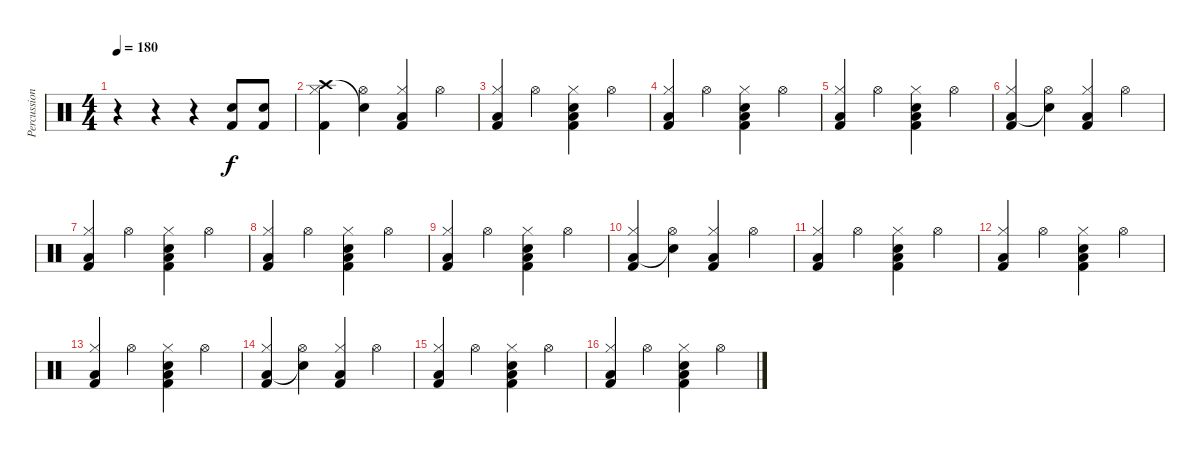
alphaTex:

\track ("Percussion" "Percussion") {instrument percussion}
\staff {score}
\articulation defaults
\ts (4 4)
\tempo 180
\clef neutral
\ks c
r.4{dy f} r.4 r.4 ("Snare (hit) 2" "Kick (hit) 2").8 ("Snare (hit) 2" "Kick (hit) 2").8 |
("Crash high (hit)" "Kick (hit) 2" "Hi-Hat (closed)").4 ("Snare (hit)"{t} "Hi-Hat (open)").4 ("Low Floor Tom (hit)" "Kick (hit) 2" "Hi-Hat (closed)").4 "Hi-Hat (open)".4 |
("Low Floor Tom (hit)" "Kick (hit) 2" "Hi-Hat (closed)").4 "Hi-Hat (open)".4 ("Low Floor Tom (hit)" "Kick (hit) 2" "Hi-Hat (closed)" "Snare (hit) 2").4 "Hi-Hat (open)".4 |
("Low Floor Tom (hit)" "Kick (hit) 2" "Hi-Hat (closed)").4 "Hi-Hat (open)".4 ("Low Floor Tom (hit)" "Kick (hit) 2" "Hi-Hat (closed)" "Snare (hit) 2").4 "Hi-Hat (open)".4 |
("Low Floor Tom (hit)" "Kick (hit) 2" "Hi-Hat (closed)").4 "Hi-Hat (open)".4 ("Low Floor Tom (hit)" "Kick (hit) 2" "Hi-Hat (closed)" "Snare (hit) 2").4 "Hi-Hat (open)".4 |
("Low Floor Tom (hit)" "Kick (hit) 2" "Hi-Hat (closed)").4 ("Snare (hit)"{t} "Hi-Hat (open)").4 ("Low Floor Tom (hit)" "Kick (hit) 2" "Hi-Hat (closed)").4 "Hi-Hat (open)".4 |
("Low Floor Tom (hit)" "Kick (hit) 2" "Hi-Hat (closed)").4 "Hi-Hat (open)".4 ("Low Floor Tom (hit)" "Kick (hit) 2" "Hi-Hat (closed)" "Snare (hit) 2").4 "Hi-Hat (open)".4 |
("Low Floor Tom (hit)" "Kick (hit) 2" "Hi-Hat (closed)").4 "Hi-Hat (open)".4 ("Low Floor Tom (hit)" "Kick (hit) 2" "Hi-Hat (closed)" "Snare (hit) 2").4 "Hi-Hat (open)".4 |
("Low Floor Tom (hit)" "Kick (hit) 2" "Hi-Hat (closed)").4 "Hi-Hat (open)".4 ("Low Floor Tom (hit)" "Kick (hit) 2" "Hi-Hat (closed)" "Snare (hit) 2").4 "Hi-Hat (open)".4 |
("Low Floor Tom (hit)" "Kick (hit) 2" "Hi-Hat (closed)").4 ("Snare (hit)"{t} "Hi-Hat (open)").4 ("Low Floor Tom (hit)" "Kick (hit) 2" "Hi-Hat (closed)").4 "Hi-Hat (open)".4 |
("Low Floor Tom (hit)" "Kick (hit) 2" "Hi-Hat (closed)").4 "Hi-Hat (open)".4 ("Low Floor Tom (hit)" "Kick (hit) 2" "Hi-Hat (closed)" "Snare (hit) 2").4 "Hi-Hat (open)".4 |
("Low Floor Tom (hit)" "Kick (hit) 2" "Hi-Hat (closed)").4 "Hi-Hat (open)".4 ("Low Floor Tom (hit)" "Kick (hit) 2" "Hi-Hat (closed)" "Snare (hit) 2").4 "Hi-Hat (open)".4 |
("Low Floor Tom (hit)" "Kick (hit) 2" "Hi-Hat (closed)").4 "Hi-Hat (open)".4 ("Low Floor Tom (hit)" "Kick (hit) 2" "Hi-Hat (closed)" "Snare (hit) 2").4 "Hi-Hat (open)".4 |
("Low Floor Tom (hit)" "Kick (hit) 2" "Hi-Hat (closed)").4 ("Snare (hit)"{t} "Hi-Hat (open)").4 ("Low Floor Tom (hit)" "Kick (hit) 2" "Hi-Hat (closed)").4 "Hi-Hat (open)".4 |
("Low Floor Tom (hit)" "Kick (hit) 2" "Hi-Hat (closed)").4 "Hi-Hat (open)".4 ("Low Floor Tom (hit)" "Kick (hit) 2" "Hi-Hat (closed)" "Snare (hit) 2").4 "Hi-Hat (open)".4 |
("Low Floor Tom (hit)" "Kick (hit) 2" "Hi-Hat (closed)").4 "Hi-Hat (open)".4 ("Low Floor Tom (hit)" "Kick (hit) 2" "Hi-Hat (closed)" "Snare (hit) 2").4 "Hi-Hat (open)".4
